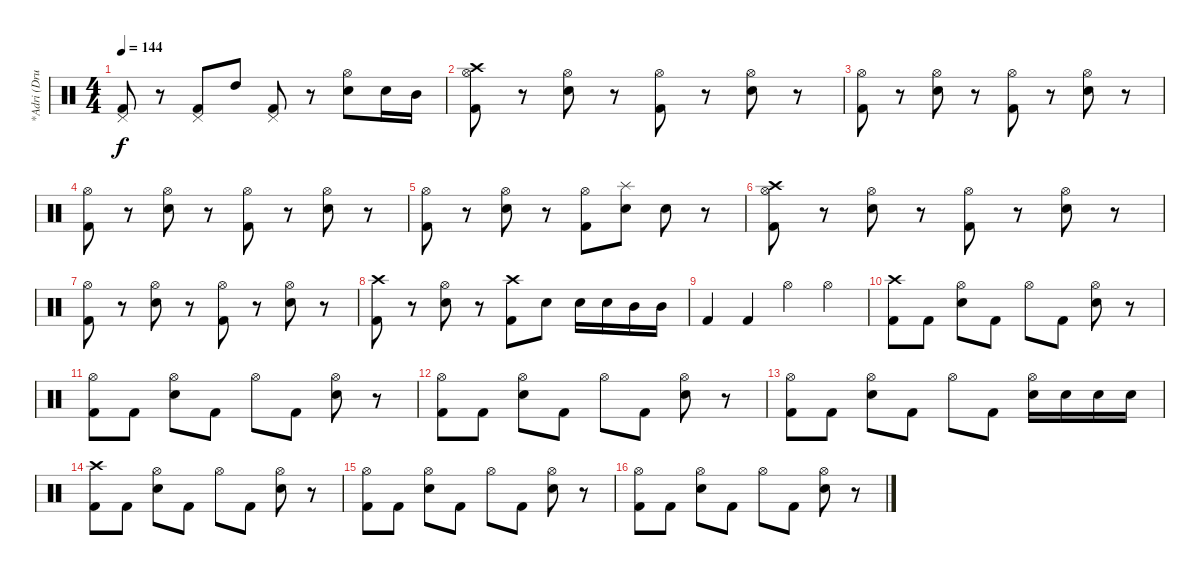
\track ("*Adri (Drum)" "*Adri (Dru") {instrument percussion}
\staff {score}
\articulation defaults
\ts (4 4)
\tempo 144
\clef neutral
\ks c
("Pedal Hi-Hat (hit)" "Kick (hit) 2").8{dy f} r.8 ("Pedal Hi-Hat (hit)" "Kick (hit) 2").8 "High Tom (hit)".8 ("Pedal Hi-Hat (hit)" "Kick (hit) 2").8 r.8 ("Hi-Hat (open)" "Electric Snare (hit)").8 "Electric Snare (hit)".16 "Mid Tom (hit)".16 |
("Crash high (hit)" "Hi-Hat (open)" "Kick (hit) 2").8 r.8 ("Hi-Hat (open)" "Electric Snare (hit)").8 r.8 ("Hi-Hat (open)" "Kick (hit) 2").8 r.8 ("Hi-Hat (open)" "Electric Snare (hit)").8 r.8 |
("Hi-Hat (open)" "Kick (hit) 2").8 r.8 ("Hi-Hat (open)" "Electric Snare (hit)").8 r.8 ("Hi-Hat (open)" "Kick (hit) 2").8 r.8 ("Hi-Hat (open)" "Electric Snare (hit)").8 r.8 |
("Hi-Hat (open)" "Kick (hit) 2").8 r.8 ("Hi-Hat (open)" "Electric Snare (hit)").8 r.8 ("Hi-Hat (open)" "Kick (hit) 2").8 r.8 ("Hi-Hat (open)" "Electric Snare (hit)").8 r.8 |
("Hi-Hat (open)" "Kick (hit) 2").8 r.8 ("Hi-Hat (open)" "Electric Snare (hit)").8 r.8 ("Hi-Hat (open)" "Kick (hit) 2").8 ("Splash (hit)" "Electric Snare (hit)").8 "Electric Snare (hit)".8 r.8 |
("Crash high (hit)" "Hi-Hat (open)" "Kick (hit) 2").8 r.8 ("Hi-Hat (open)" "Electric Snare (hit)").8 r.8 ("Hi-Hat (open)" "Kick (hit) 2").8 r.8 ("Hi-Hat (open)" "Electric Snare (hit)").8 r.8 |
("Hi-Hat (open)" "Kick (hit) 2").8 r.8 ("Hi-Hat (open)" "Electric Snare (hit)").8 r.8 ("Hi-Hat (open)" "Kick (hit) 2").8 r.8 ("Hi-Hat (open)" "Electric Snare (hit)").8 r.8 |
("Crash high (hit)" "Kick (hit) 2").8 r.8 ("Hi-Hat (open)" "Electric Snare (hit)").8 r.8 ("Crash high (hit)" "Kick (hit) 2").8 "Electric Snare (hit)".8 "Electric Snare (hit)".16 "Electric Snare (hit)".16 "Mid Tom (hit)".16 "Mid Tom (hit)".16 |
"Kick (hit) 2".4 "Kick (hit) 2".4 "Hi-Hat (open)".4 "Hi-Hat (open)".4 |
("Crash high (hit)" "Kick (hit) 2").8 "Kick (hit) 2".8 ("Hi-Hat (open)" "Electric Snare (hit)").8 "Kick (hit) 2".8 "Hi-Hat (open)".8 "Kick (hit) 2".8 ("Hi-Hat (open)" "Electric Snare (hit)").8 r.8 |
("Hi-Hat (open)" "Kick (hit) 2").8 "Kick (hit) 2".8 ("Hi-Hat (open)" "Electric Snare (hit)").8 "Kick (hit) 2".8 "Hi-Hat (open)".8 "Kick (hit) 2".8 ("Hi-Hat (open)" "Electric Snare (hit)").8 r.8 |
("Hi-Hat (open)" "Kick (hit) 2").8 "Kick (hit) 2".8 ("Hi-Hat (open)" "Electric Snare (hit)").8 "Kick (hit) 2".8 "Hi-Hat (open)".8 "Kick (hit) 2".8 ("Hi-Hat (open)" "Electric Snare (hit)").8 r.8 |
("Hi-Hat (open)" "Kick (hit) 2").8 "Kick (hit) 2".8 ("Hi-Hat (open)" "Electric Snare (hit)").8 "Kick (hit) 2".8 "Hi-Hat (open)".8 "Kick (hit) 2".8 ("Hi-Hat (open)" "Electric Snare (hit)").16 "Electric Snare (hit)".16 "Electric Snare (hit)".16 "Electric Snare (hit)".16 |
("Crash high (hit)" "Kick (hit) 2").8 "Kick (hit) 2".8 ("Hi-Hat (open)" "Electric Snare (hit)").8 "Kick (hit) 2".8 "Hi-Hat (open)".8 "Kick (hit) 2".8 ("Hi-Hat (open)" "Electric Snare (hit)").8 r.8 |
("Hi-Hat (open)" "Kick (hit) 2").8 "Kick (hit) 2".8 ("Hi-Hat (open)" "Electric Snare (hit)").8 "Kick (hit) 2".8 "Hi-Hat (open)".8 "Kick (hit) 2".8 ("Hi-Hat (open)" "Electric Snare (hit)").8 r.8 |
("Hi-Hat (open)" "Kick (hit) 2").8 "Kick (hit) 2".8 ("Hi-Hat (open)" "Electric Snare (hit)").8 "Kick (hit) 2".8 "Hi-Hat (open)".8 "Kick (hit) 2".8 ("Hi-Hat (open)" "Electric Snare (hit)").8 r.8
